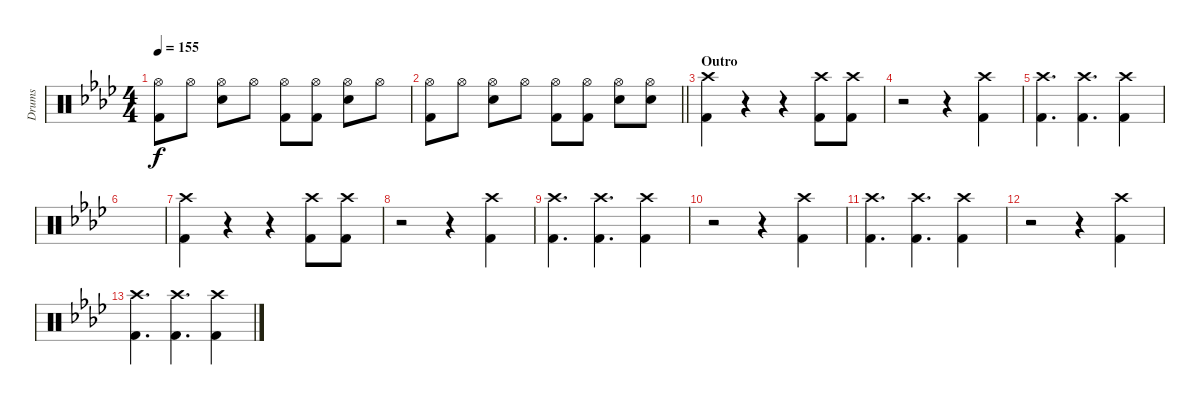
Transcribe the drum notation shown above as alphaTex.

\track ("Drums" "Drums") {instrument percussion}
\staff {score}
\articulation defaults
\ts (4 4)
\tempo 155
\clef neutral
\ks fminor
("Hi-Hat (open)" "Kick (hit) 2").8{dy f} "Hi-Hat (open)".8 ("Hi-Hat (open)" "Snare (hit) 2").8 "Hi-Hat (open)".8 ("Hi-Hat (open)" "Kick (hit) 2").8 ("Hi-Hat (open)" "Kick (hit) 2").8 ("Hi-Hat (open)" "Snare (hit) 2").8 "Hi-Hat (open)".8 |
\barLineRight lightlight
("Hi-Hat (open)" "Kick (hit) 2").8 "Hi-Hat (open)".8 ("Hi-Hat (open)" "Snare (hit) 2").8 "Hi-Hat (open)".8 ("Hi-Hat (open)" "Kick (hit) 2").8 ("Hi-Hat (open)" "Kick (hit) 2").8 ("Hi-Hat (open)" "Snare (hit) 2").8 ("Hi-Hat (open)" "Snare (hit) 2").8 |
\section ("" "Outro")
("Crash high (hit)" "Kick (hit) 2").4 r.4 r.4 ("Crash high (hit)" "Kick (hit) 2").8 ("Crash high (hit)" "Kick (hit) 2").8 |
r.2 r.4 ("Crash high (hit)" "Kick (hit) 2").4 |
("Crash high (hit)" "Kick (hit) 2").4{d} ("Crash high (hit)" "Kick (hit) 2").4{d} ("Crash high (hit)" "Kick (hit) 2").4 |
|
("Crash high (hit)" "Kick (hit) 2").4 r.4 r.4 ("Crash high (hit)" "Kick (hit) 2").8 ("Crash high (hit)" "Kick (hit) 2").8 |
r.2 r.4 ("Crash high (hit)" "Kick (hit) 2").4 |
("Crash high (hit)" "Kick (hit) 2").4{d} ("Crash high (hit)" "Kick (hit) 2").4{d} ("Crash high (hit)" "Kick (hit) 2").4 |
r.2 r.4 ("Crash high (hit)" "Kick (hit) 2").4 |
("Crash high (hit)" "Kick (hit) 2").4{d} ("Crash high (hit)" "Kick (hit) 2").4{d} ("Crash high (hit)" "Kick (hit) 2").4 |
r.2 r.4 ("Crash high (hit)" "Kick (hit) 2").4 |
("Crash high (hit)" "Kick (hit) 2").4{d} ("Crash high (hit)" "Kick (hit) 2").4{d} ("Crash high (hit)" "Kick (hit) 2").4
